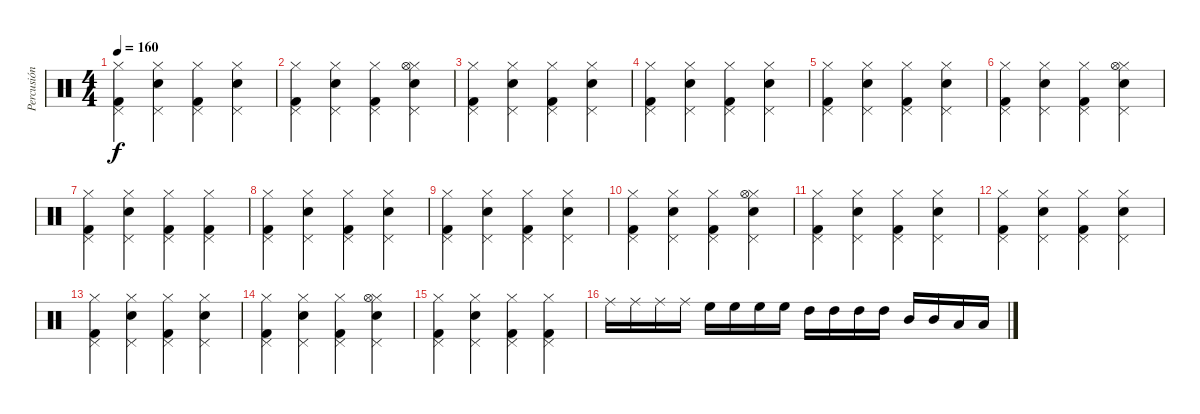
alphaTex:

\track ("Percusión" "Percusión") {instrument percussion}
\staff {score}
\articulation defaults
\ts (4 4)
\tempo 160
\clef neutral
\ks c
("Hi-Hat (closed)" "Kick (hit) 2" "Pedal Hi-Hat (hit)").4{dy f} ("Hi-Hat (closed)" "Snare (hit) 2" "Pedal Hi-Hat (hit)").4 ("Hi-Hat (closed)" "Kick (hit) 2" "Pedal Hi-Hat (hit)").4 ("Hi-Hat (closed)" "Snare (hit) 2" "Pedal Hi-Hat (hit)").4 |
("Hi-Hat (closed)" "Kick (hit) 2" "Pedal Hi-Hat (hit)").4 ("Hi-Hat (closed)" "Snare (hit) 2" "Pedal Hi-Hat (hit)").4 ("Hi-Hat (closed)" "Kick (hit) 2" "Pedal Hi-Hat (hit)").4 ("Hi-Hat (closed)" "Snare (hit) 2" "Pedal Hi-Hat (hit)" "Hi-Hat (open)").4 |
("Hi-Hat (closed)" "Kick (hit) 2" "Pedal Hi-Hat (hit)").4 ("Hi-Hat (closed)" "Snare (hit) 2" "Pedal Hi-Hat (hit)").4 ("Hi-Hat (closed)" "Kick (hit) 2" "Pedal Hi-Hat (hit)").4 ("Hi-Hat (closed)" "Snare (hit) 2" "Pedal Hi-Hat (hit)").4 |
("Hi-Hat (closed)" "Kick (hit) 2" "Pedal Hi-Hat (hit)").4 ("Hi-Hat (closed)" "Snare (hit) 2" "Pedal Hi-Hat (hit)").4 ("Hi-Hat (closed)" "Kick (hit) 2" "Pedal Hi-Hat (hit)").4 ("Hi-Hat (closed)" "Snare (hit) 2" "Pedal Hi-Hat (hit)").4 |
("Hi-Hat (closed)" "Kick (hit) 2" "Pedal Hi-Hat (hit)").4 ("Hi-Hat (closed)" "Snare (hit) 2" "Pedal Hi-Hat (hit)").4 ("Hi-Hat (closed)" "Kick (hit) 2" "Pedal Hi-Hat (hit)").4 ("Hi-Hat (closed)" "Snare (hit) 2" "Pedal Hi-Hat (hit)").4 |
("Hi-Hat (closed)" "Kick (hit) 2" "Pedal Hi-Hat (hit)").4 ("Hi-Hat (closed)" "Snare (hit) 2" "Pedal Hi-Hat (hit)").4 ("Hi-Hat (closed)" "Kick (hit) 2" "Pedal Hi-Hat (hit)").4 ("Hi-Hat (closed)" "Snare (hit) 2" "Pedal Hi-Hat (hit)" "Hi-Hat (open)").4 |
("Hi-Hat (closed)" "Kick (hit) 2" "Pedal Hi-Hat (hit)").4 ("Hi-Hat (closed)" "Snare (hit) 2" "Pedal Hi-Hat (hit)").4 ("Hi-Hat (closed)" "Kick (hit) 2" "Pedal Hi-Hat (hit)").4 ("Hi-Hat (closed)" "Kick (hit) 2" "Pedal Hi-Hat (hit)").4 |
("Hi-Hat (closed)" "Kick (hit) 2" "Pedal Hi-Hat (hit)").4 ("Hi-Hat (closed)" "Snare (hit) 2" "Pedal Hi-Hat (hit)").4 ("Hi-Hat (closed)" "Kick (hit) 2" "Pedal Hi-Hat (hit)").4 ("Hi-Hat (closed)" "Snare (hit) 2" "Pedal Hi-Hat (hit)").4 |
("Hi-Hat (closed)" "Kick (hit) 2" "Pedal Hi-Hat (hit)").4 ("Hi-Hat (closed)" "Snare (hit) 2" "Pedal Hi-Hat (hit)").4 ("Hi-Hat (closed)" "Kick (hit) 2" "Pedal Hi-Hat (hit)").4 ("Hi-Hat (closed)" "Snare (hit) 2" "Pedal Hi-Hat (hit)").4 |
("Hi-Hat (closed)" "Kick (hit) 2" "Pedal Hi-Hat (hit)").4 ("Hi-Hat (closed)" "Snare (hit) 2" "Pedal Hi-Hat (hit)").4 ("Hi-Hat (closed)" "Kick (hit) 2" "Pedal Hi-Hat (hit)").4 ("Hi-Hat (closed)" "Snare (hit) 2" "Pedal Hi-Hat (hit)" "Hi-Hat (open)").4 |
("Hi-Hat (closed)" "Kick (hit) 2" "Pedal Hi-Hat (hit)").4 ("Hi-Hat (closed)" "Snare (hit) 2" "Pedal Hi-Hat (hit)").4 ("Hi-Hat (closed)" "Kick (hit) 2" "Pedal Hi-Hat (hit)").4 ("Hi-Hat (closed)" "Snare (hit) 2" "Pedal Hi-Hat (hit)").4 |
("Hi-Hat (closed)" "Kick (hit) 2" "Pedal Hi-Hat (hit)").4 ("Hi-Hat (closed)" "Snare (hit) 2" "Pedal Hi-Hat (hit)").4 ("Hi-Hat (closed)" "Kick (hit) 2" "Pedal Hi-Hat (hit)").4 ("Hi-Hat (closed)" "Snare (hit) 2" "Pedal Hi-Hat (hit)").4 |
("Hi-Hat (closed)" "Kick (hit) 2" "Pedal Hi-Hat (hit)").4 ("Hi-Hat (closed)" "Snare (hit) 2" "Pedal Hi-Hat (hit)").4 ("Hi-Hat (closed)" "Kick (hit) 2" "Pedal Hi-Hat (hit)").4 ("Hi-Hat (closed)" "Snare (hit) 2" "Pedal Hi-Hat (hit)").4 |
("Hi-Hat (closed)" "Kick (hit) 2" "Pedal Hi-Hat (hit)").4 ("Hi-Hat (closed)" "Snare (hit) 2" "Pedal Hi-Hat (hit)").4 ("Hi-Hat (closed)" "Kick (hit) 2" "Pedal Hi-Hat (hit)").4 ("Hi-Hat (closed)" "Snare (hit) 2" "Pedal Hi-Hat (hit)" "Hi-Hat (open)").4 |
("Hi-Hat (closed)" "Kick (hit) 2" "Pedal Hi-Hat (hit)").4 ("Hi-Hat (closed)" "Snare (hit) 2" "Pedal Hi-Hat (hit)").4 ("Hi-Hat (closed)" "Kick (hit) 2" "Pedal Hi-Hat (hit)").4 ("Hi-Hat (closed)" "Kick (hit) 2" "Pedal Hi-Hat (hit)").4 |
"Ride (middle)".16 "Ride (middle)".16 "Ride (middle)".16 "Ride (middle)".16 "High Floor Tom (hit)".16 "High Floor Tom (hit)".16 "High Floor Tom (hit)".16 "High Floor Tom (hit)".16 "High Tom (hit)".16 "High Tom (hit)".16 "High Tom (hit)".16 "High Tom (hit)".16 "Mid Tom (hit)".16 "Mid Tom (hit)".16 "Low Tom (hit)".16 "Low Tom (hit)".16
